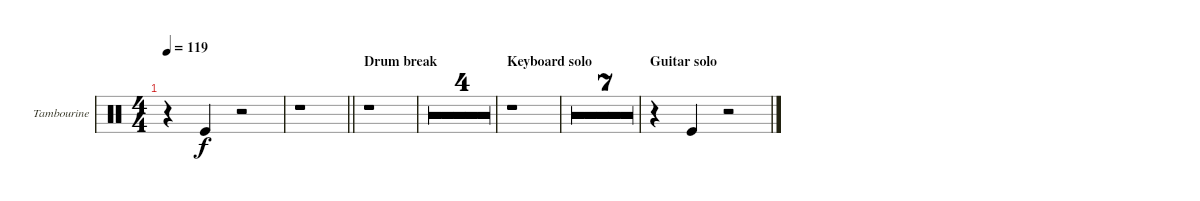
\defaultSystemsLayout 4
\bracketExtendMode groupsimilarinstruments
\useSystemSignSeparator
\multiBarRest
\multiTrackTrackNamePolicy allsystems
\firstSystemTrackNameMode fullname
\firstSystemTrackNameOrientation horizontal
\otherSystemsTrackNameOrientation horizontal
\defaultBarNumberDisplay FirstOfSystem
\track ("Tambourine" "Tamb.") {multiBarRest instrument percussion}
\staff {score}
\articulation defaults
\ts (4 4)
\tempo 119
\clef neutral
\ks aminor
r.4{dy f} "Kick (hit)".4 r.2 |
\barLineRight lightlight
r.1 |
\section ("" "Drum break")
r.1 |
r.1 |
r.1 |
r.1 |
\barLineRight lightlight
r.1 |
\section ("" "Keyboard solo")
r.1 |
r.1 |
r.1 |
r.1 |
r.1 |
r.1 |
r.1 |
\barLineRight lightlight
r.1 |
\section ("" "Guitar solo")
r.4 "Kick (hit)".4 r.2
